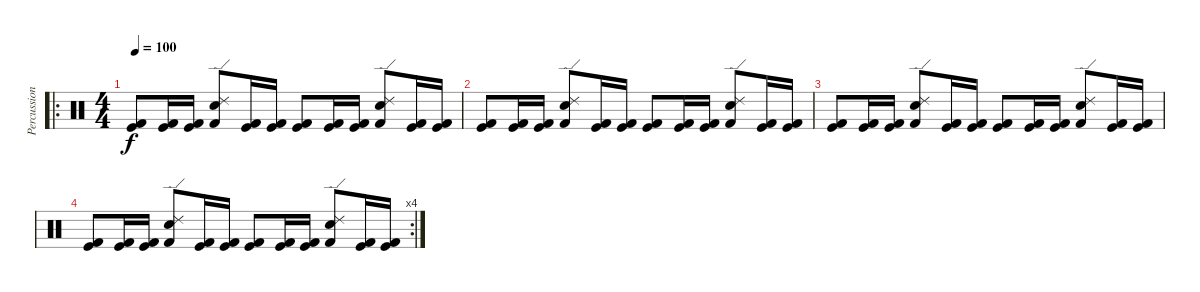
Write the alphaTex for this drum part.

\track ("Percussions" "Percussion") {instrument percussion}
\staff {score}
\articulation defaults
\ro
\ts (4 4)
\tempo 100
\clef neutral
\ks c
("Kick (hit) 2" "Kick (hit)").8{dy f} ("Kick (hit) 2" "Kick (hit)").16 ("Kick (hit) 2" "Kick (hit)").16 ("Electric Snare (hit)" "Ride (edge) 2" "Kick (hit) 2").8 ("Kick (hit) 2" "Kick (hit)").16 ("Kick (hit) 2" "Kick (hit)").16 ("Kick (hit) 2" "Kick (hit)").8 ("Kick (hit) 2" "Kick (hit)").16 ("Kick (hit) 2" "Kick (hit)").16 ("Electric Snare (hit)" "Ride (edge) 2" "Kick (hit) 2").8 ("Kick (hit) 2" "Kick (hit)").16 ("Kick (hit) 2" "Kick (hit)").16 |
("Kick (hit) 2" "Kick (hit)").8 ("Kick (hit) 2" "Kick (hit)").16 ("Kick (hit) 2" "Kick (hit)").16 ("Electric Snare (hit)" "Ride (edge) 2" "Kick (hit) 2").8 ("Kick (hit) 2" "Kick (hit)").16 ("Kick (hit) 2" "Kick (hit)").16 ("Kick (hit) 2" "Kick (hit)").8 ("Kick (hit) 2" "Kick (hit)").16 ("Kick (hit) 2" "Kick (hit)").16 ("Electric Snare (hit)" "Ride (edge) 2" "Kick (hit) 2").8 ("Kick (hit) 2" "Kick (hit)").16 ("Kick (hit) 2" "Kick (hit)").16 |
("Kick (hit) 2" "Kick (hit)").8 ("Kick (hit) 2" "Kick (hit)").16 ("Kick (hit) 2" "Kick (hit)").16 ("Electric Snare (hit)" "Ride (edge) 2" "Kick (hit) 2").8 ("Kick (hit) 2" "Kick (hit)").16 ("Kick (hit) 2" "Kick (hit)").16 ("Kick (hit) 2" "Kick (hit)").8 ("Kick (hit) 2" "Kick (hit)").16 ("Kick (hit) 2" "Kick (hit)").16 ("Electric Snare (hit)" "Ride (edge) 2" "Kick (hit) 2").8 ("Kick (hit) 2" "Kick (hit)").16 ("Kick (hit) 2" "Kick (hit)").16 |
\rc 4
("Kick (hit) 2" "Kick (hit)").8 ("Kick (hit) 2" "Kick (hit)").16 ("Kick (hit) 2" "Kick (hit)").16 ("Electric Snare (hit)" "Ride (edge) 2" "Kick (hit) 2").8 ("Kick (hit) 2" "Kick (hit)").16 ("Kick (hit) 2" "Kick (hit)").16 ("Kick (hit) 2" "Kick (hit)").8 ("Kick (hit) 2" "Kick (hit)").16 ("Kick (hit) 2" "Kick (hit)").16 ("Electric Snare (hit)" "Ride (edge) 2" "Kick (hit) 2").8 ("Kick (hit) 2" "Kick (hit)").16 ("Kick (hit) 2" "Kick (hit)").16
